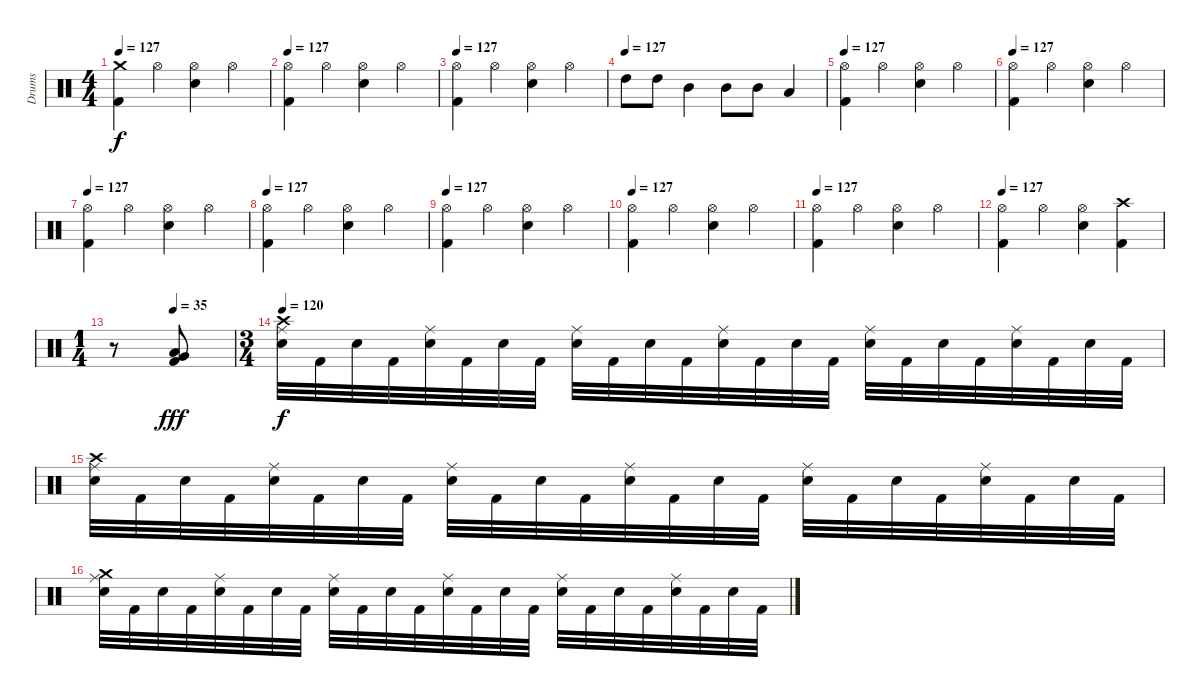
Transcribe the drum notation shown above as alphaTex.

\track ("Drums" "Drums") {instrument percussion}
\staff {score}
\articulation defaults
\ts (4 4)
\tempo 130
\tempo 127
\clef neutral
\ks c
("Crash medium (hit)" "Kick (hit) 2").4{dy f} "Hi-Hat (open)".4 ("Hi-Hat (open)" "Electric Snare (hit)").4 "Hi-Hat (open)".4 |
\tempo 130
\tempo 127
("Hi-Hat (open)" "Kick (hit) 2").4 "Hi-Hat (open)".4 ("Hi-Hat (open)" "Electric Snare (hit)").4 "Hi-Hat (open)".4 |
\tempo 130
\tempo 127
("Hi-Hat (open)" "Kick (hit) 2").4 "Hi-Hat (open)".4 ("Hi-Hat (open)" "Electric Snare (hit)").4 "Hi-Hat (open)".4 |
\tempo 130
\tempo (127)
"High Tom (hit)".8 "High Tom (hit)".8 "Mid Tom (hit)".4 "Mid Tom (hit)".8 "Mid Tom (hit)".8 "Low Tom (hit)".4 |
\tempo 127
("Hi-Hat (open)" "Kick (hit) 2").4 "Hi-Hat (open)".4 ("Hi-Hat (open)" "Electric Snare (hit)").4 "Hi-Hat (open)".4 |
\tempo 127
("Hi-Hat (open)" "Kick (hit) 2").4 "Hi-Hat (open)".4 ("Hi-Hat (open)" "Electric Snare (hit)").4 "Hi-Hat (open)".4 |
\tempo 127
("Hi-Hat (open)" "Kick (hit) 2").4 "Hi-Hat (open)".4 ("Hi-Hat (open)" "Electric Snare (hit)").4 "Hi-Hat (open)".4 |
\tempo 127
("Hi-Hat (open)" "Kick (hit) 2").4 "Hi-Hat (open)".4 ("Hi-Hat (open)" "Electric Snare (hit)").4 "Hi-Hat (open)".4 |
\tempo 127
("Hi-Hat (open)" "Kick (hit) 2").4 "Hi-Hat (open)".4 ("Hi-Hat (open)" "Electric Snare (hit)").4 "Hi-Hat (open)".4 |
\tempo 127
("Hi-Hat (open)" "Kick (hit) 2").4 "Hi-Hat (open)".4 ("Hi-Hat (open)" "Electric Snare (hit)").4 "Hi-Hat (open)".4 |
\tempo 127
("Hi-Hat (open)" "Kick (hit) 2").4 "Hi-Hat (open)".4 ("Hi-Hat (open)" "Electric Snare (hit)").4 "Hi-Hat (open)".4 |
\tempo 127
("Hi-Hat (open)" "Kick (hit) 2").4 "Hi-Hat (open)".4 ("Hi-Hat (open)" "Electric Snare (hit)").4 ("Crash high (hit)" "Kick (hit) 2").4 |
\ts (1 4)
\tempo (35 0.5)
r.8 ("Low Tom (hit)" "Very Low Tom (hit)" "Kick (hit) 2").8{dy fff} |
\ts (3 4)
\tempo 120
("Crash high (hit)" "Ride (middle)" "Electric Snare (hit)").32{dy f} "Kick (hit) 2".32 "Electric Snare (hit)".32 "Kick (hit) 2".32 ("Ride (middle)" "Electric Snare (hit)").32 "Kick (hit) 2".32 "Electric Snare (hit)".32 "Kick (hit) 2".32 ("Ride (middle)" "Electric Snare (hit)").32 "Kick (hit) 2".32 "Electric Snare (hit)".32 "Kick (hit) 2".32 ("Ride (middle)" "Electric Snare (hit)").32 "Kick (hit) 2".32 "Electric Snare (hit)".32 "Kick (hit) 2".32 ("Ride (middle)" "Electric Snare (hit)").32 "Kick (hit) 2".32 "Electric Snare (hit)".32 "Kick (hit) 2".32 ("Ride (middle)" "Electric Snare (hit)").32 "Kick (hit) 2".32 "Electric Snare (hit)".32 "Kick (hit) 2".32 |
("Crash high (hit)" "Ride (middle)" "Electric Snare (hit)").32 "Kick (hit) 2".32 "Electric Snare (hit)".32 "Kick (hit) 2".32 ("Ride (middle)" "Electric Snare (hit)").32 "Kick (hit) 2".32 "Electric Snare (hit)".32 "Kick (hit) 2".32 ("Ride (middle)" "Electric Snare (hit)").32 "Kick (hit) 2".32 "Electric Snare (hit)".32 "Kick (hit) 2".32 ("Ride (middle)" "Electric Snare (hit)").32 "Kick (hit) 2".32 "Electric Snare (hit)".32 "Kick (hit) 2".32 ("Ride (middle)" "Electric Snare (hit)").32 "Kick (hit) 2".32 "Electric Snare (hit)".32 "Kick (hit) 2".32 ("Ride (middle)" "Electric Snare (hit)").32 "Kick (hit) 2".32 "Electric Snare (hit)".32 "Kick (hit) 2".32 |
("Crash medium (hit)" "Ride (middle)" "Electric Snare (hit)").32 "Kick (hit) 2".32 "Electric Snare (hit)".32 "Kick (hit) 2".32 ("Ride (middle)" "Electric Snare (hit)").32 "Kick (hit) 2".32 "Electric Snare (hit)".32 "Kick (hit) 2".32 ("Ride (middle)" "Electric Snare (hit)").32 "Kick (hit) 2".32 "Electric Snare (hit)".32 "Kick (hit) 2".32 ("Ride (middle)" "Electric Snare (hit)").32 "Kick (hit) 2".32 "Electric Snare (hit)".32 "Kick (hit) 2".32 ("Ride (middle)" "Electric Snare (hit)").32 "Kick (hit) 2".32 "Electric Snare (hit)".32 "Kick (hit) 2".32 ("Ride (middle)" "Electric Snare (hit)").32 "Kick (hit) 2".32 "Electric Snare (hit)".32 "Kick (hit) 2".32
